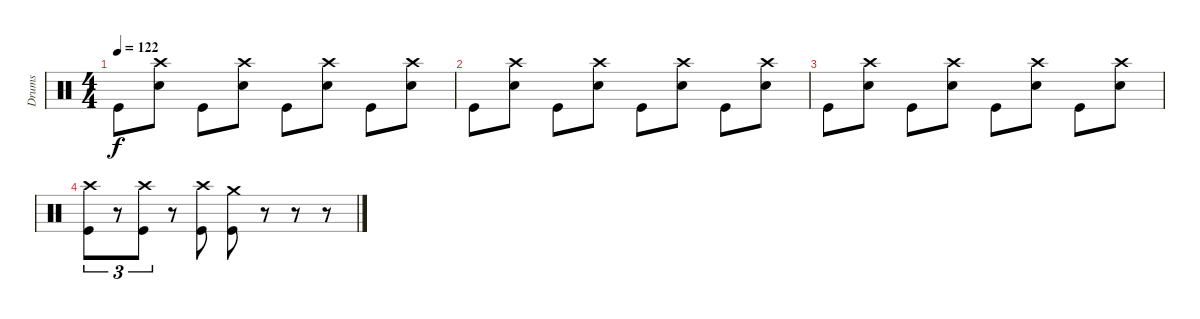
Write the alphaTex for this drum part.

\track ("Drums" "Drums") {instrument percussion}
\staff {score}
\articulation defaults
\ts (4 4)
\tempo 122
\clef neutral
\ks c "Kick (hit)".8{dy f}
("Crash high (hit)" "Snare (hit) 2").8 "Kick (hit)".8 ("Crash high (hit)" "Snare (hit) 2").8 "Kick (hit)".8 ("Crash high (hit)" "Snare (hit) 2").8 "Kick (hit)".8 ("Crash high (hit)" "Snare (hit) 2").8 |
"Kick (hit)".8 ("Crash high (hit)" "Snare (hit) 2").8 "Kick (hit)".8 ("Crash high (hit)" "Snare (hit) 2").8 "Kick (hit)".8 ("Crash high (hit)" "Snare (hit) 2").8 "Kick (hit)".8 ("Crash high (hit)" "Snare (hit) 2").8 |
"Kick (hit)".8 ("Crash high (hit)" "Snare (hit) 2").8 "Kick (hit)".8 ("Crash high (hit)" "Snare (hit) 2").8 "Kick (hit)".8 ("Crash high (hit)" "Snare (hit) 2").8 "Kick (hit)".8 ("Crash high (hit)" "Snare (hit) 2").8 |
("Crash high (hit)" "Kick (hit)").8{tu (3 2)} r.8{tu (3 2)} ("Crash high (hit)" "Kick (hit)").8{tu (3 2)} r.8 ("Crash high (hit)" "Kick (hit)").8 ("Crash medium (hit)" "Kick (hit)").8 r.8 r.8 r.8
